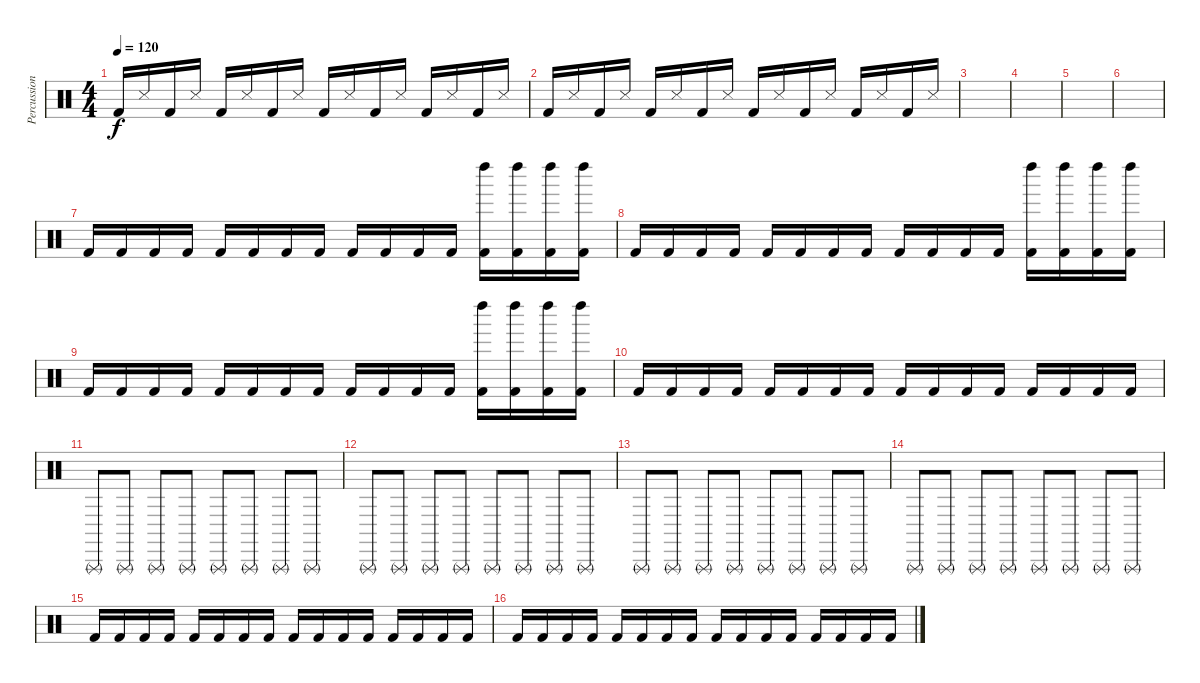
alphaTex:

\track ("Percussion" "Percussion") {instrument percussion}
\staff {score}
\articulation defaults
\ts (4 4)
\tempo 120
\clef neutral
\ks c "Kick (hit) 2".16{dy f} "Snare (side stick) 3".16 "Kick (hit) 2".16 "Snare (side stick) 3".16 "Kick (hit) 2".16 "Snare (side stick) 3".16 "Kick (hit) 2".16 "Snare (side stick) 3".16 "Kick (hit) 2".16 "Snare (side stick) 3".16 "Kick (hit) 2".16 "Snare (side stick) 3".16 "Kick (hit) 2".16 "Snare (side stick) 3".16 "Kick (hit) 2".16 "Snare (side stick) 3".16
|
"Kick (hit) 2".16 "Snare (side stick) 3".16 "Kick (hit) 2".16 "Snare (side stick) 3".16 "Kick (hit) 2".16 "Snare (side stick) 3".16 "Kick (hit) 2".16 "Snare (side stick) 3".16 "Kick (hit) 2".16 "Snare (side stick) 3".16 "Kick (hit) 2".16 "Snare (side stick) 3".16 "Kick (hit) 2".16 "Snare (side stick) 3".16 "Kick (hit) 2".16 "Snare (side stick) 3".16 |
|
|
|
|
"Kick (hit) 2".16 "Kick (hit) 2".16 "Kick (hit) 2".16 "Kick (hit) 2".16 "Kick (hit) 2".16 "Kick (hit) 2".16 "Kick (hit) 2".16 "Kick (hit) 2".16 "Kick (hit) 2".16 "Kick (hit) 2".16 "Kick (hit) 2".16 "Kick (hit) 2".16 ("Kick (hit) 2" "Left Maraca (hit)").16 ("Kick (hit) 2" "Left Maraca (hit)").16 ("Kick (hit) 2" "Left Maraca (hit)").16 ("Kick (hit) 2" "Left Maraca (hit)").16 |
"Kick (hit) 2".16 "Kick (hit) 2".16 "Kick (hit) 2".16 "Kick (hit) 2".16 "Kick (hit) 2".16 "Kick (hit) 2".16 "Kick (hit) 2".16 "Kick (hit) 2".16 "Kick (hit) 2".16 "Kick (hit) 2".16 "Kick (hit) 2".16 "Kick (hit) 2".16 ("Kick (hit) 2" "Left Maraca (hit)").16 ("Kick (hit) 2" "Left Maraca (hit)").16 ("Kick (hit) 2" "Left Maraca (hit)").16 ("Kick (hit) 2" "Left Maraca (hit)").16 |
"Kick (hit) 2".16 "Kick (hit) 2".16 "Kick (hit) 2".16 "Kick (hit) 2".16 "Kick (hit) 2".16 "Kick (hit) 2".16 "Kick (hit) 2".16 "Kick (hit) 2".16 "Kick (hit) 2".16 "Kick (hit) 2".16 "Kick (hit) 2".16 "Kick (hit) 2".16 ("Kick (hit) 2" "Left Maraca (hit)").16 ("Kick (hit) 2" "Left Maraca (hit)").16 ("Kick (hit) 2" "Left Maraca (hit)").16 ("Kick (hit) 2" "Left Maraca (hit)").16 |
"Kick (hit) 2".16 "Kick (hit) 2".16 "Kick (hit) 2".16 "Kick (hit) 2".16 "Kick (hit) 2".16 "Kick (hit) 2".16 "Kick (hit) 2".16 "Kick (hit) 2".16 "Kick (hit) 2".16 "Kick (hit) 2".16 "Kick (hit) 2".16 "Kick (hit) 2".16 "Kick (hit) 2".16 "Kick (hit) 2".16 "Kick (hit) 2".16 "Kick (hit) 2".16 |
"Triangle (rnute)".8 "Triangle (rnute)".8 "Triangle (rnute)".8 "Triangle (rnute)".8 "Triangle (rnute)".8 "Triangle (rnute)".8 "Triangle (rnute)".8 "Triangle (rnute)".8 |
"Triangle (rnute)".8 "Triangle (rnute)".8 "Triangle (rnute)".8 "Triangle (rnute)".8 "Triangle (rnute)".8 "Triangle (rnute)".8 "Triangle (rnute)".8 "Triangle (rnute)".8 |
"Triangle (rnute)".8 "Triangle (rnute)".8 "Triangle (rnute)".8 "Triangle (rnute)".8 "Triangle (rnute)".8 "Triangle (rnute)".8 "Triangle (rnute)".8 "Triangle (rnute)".8 |
"Triangle (rnute)".8 "Triangle (rnute)".8 "Triangle (rnute)".8 "Triangle (rnute)".8 "Triangle (rnute)".8 "Triangle (rnute)".8 "Triangle (rnute)".8 "Triangle (rnute)".8 |
"Kick (hit) 2".16 "Kick (hit) 2".16 "Kick (hit) 2".16 "Kick (hit) 2".16 "Kick (hit) 2".16 "Kick (hit) 2".16 "Kick (hit) 2".16 "Kick (hit) 2".16 "Kick (hit) 2".16 "Kick (hit) 2".16 "Kick (hit) 2".16 "Kick (hit) 2".16 "Kick (hit) 2".16 "Kick (hit) 2".16 "Kick (hit) 2".16 "Kick (hit) 2".16 |
"Kick (hit) 2".16 "Kick (hit) 2".16 "Kick (hit) 2".16 "Kick (hit) 2".16 "Kick (hit) 2".16 "Kick (hit) 2".16 "Kick (hit) 2".16 "Kick (hit) 2".16 "Kick (hit) 2".16 "Kick (hit) 2".16 "Kick (hit) 2".16 "Kick (hit) 2".16 "Kick (hit) 2".16 "Kick (hit) 2".16 "Kick (hit) 2".16 "Kick (hit) 2".16
